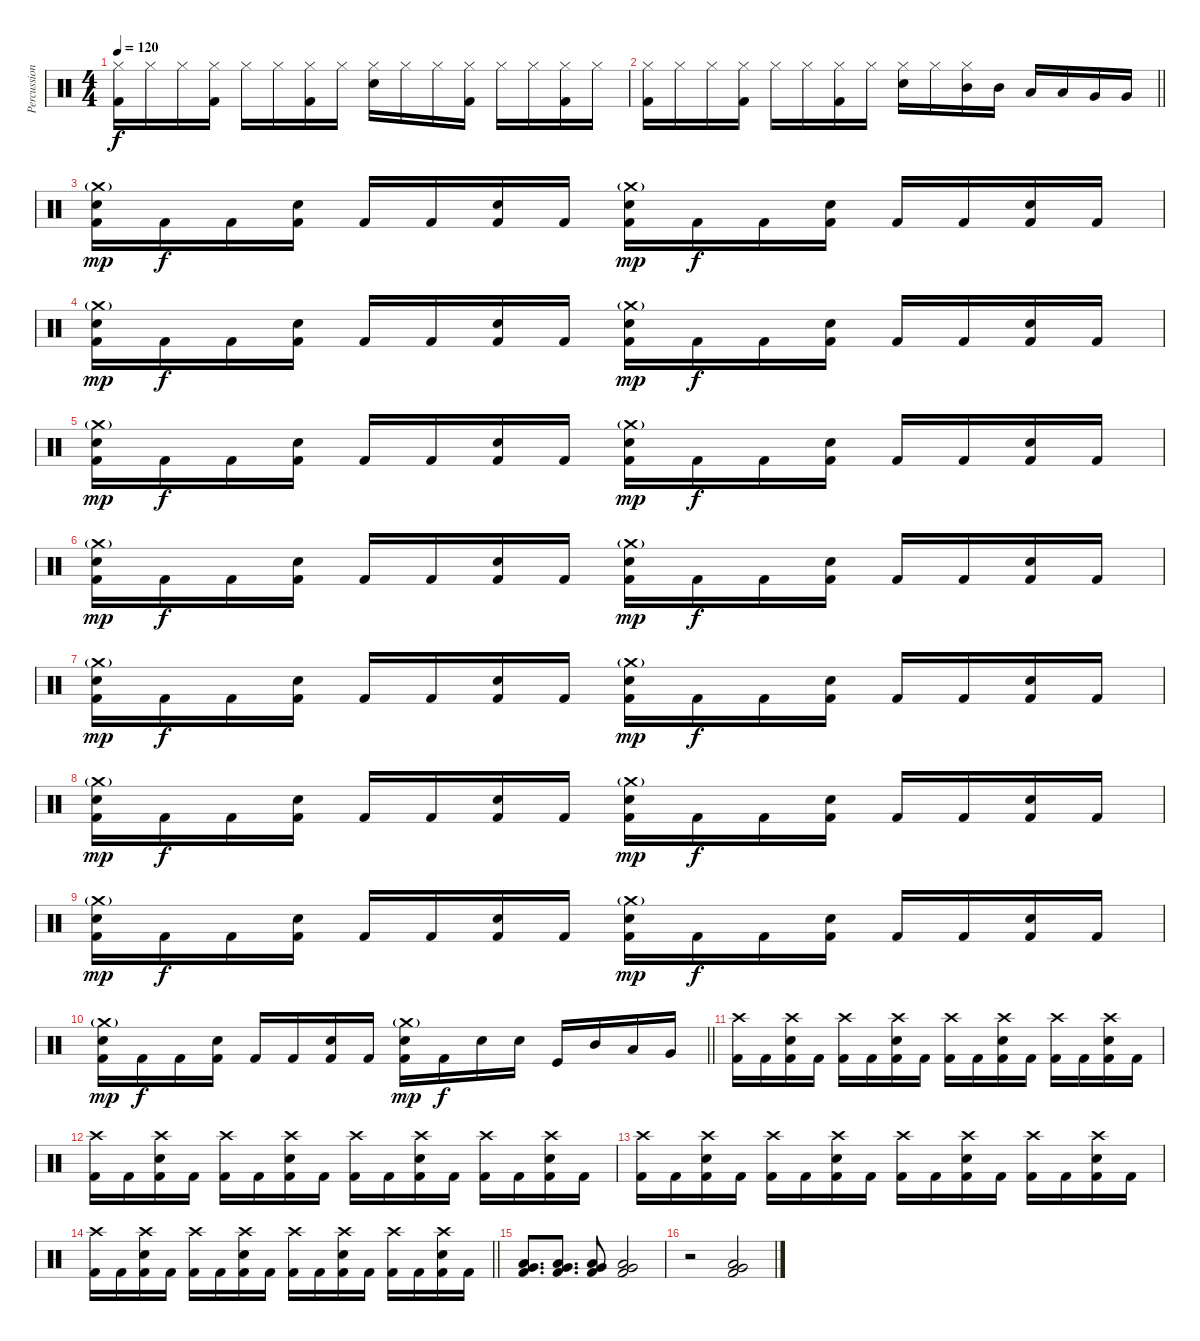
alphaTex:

\track ("Percussion" "Percussion") {instrument percussion}
\staff {score}
\articulation defaults
\ts (4 4)
\tempo 120
\clef neutral
\ks c
("Hi-Hat (closed)" "Kick (hit) 2").16{dy f} "Hi-Hat (closed)".16 "Hi-Hat (closed)".16 ("Hi-Hat (closed)" "Kick (hit) 2").16 "Hi-Hat (closed)".16 "Hi-Hat (closed)".16 ("Hi-Hat (closed)" "Kick (hit) 2").16 "Hi-Hat (closed)".16 ("Hi-Hat (closed)" "Snare (hit) 2").16 "Hi-Hat (closed)".16 "Hi-Hat (closed)".16 ("Hi-Hat (closed)" "Kick (hit) 2").16 "Hi-Hat (closed)".16 "Hi-Hat (closed)".16 ("Hi-Hat (closed)" "Kick (hit) 2").16 "Hi-Hat (closed)".16 |
\barLineRight lightlight
("Hi-Hat (closed)" "Kick (hit) 2").16 "Hi-Hat (closed)".16 "Hi-Hat (closed)".16 ("Hi-Hat (closed)" "Kick (hit) 2").16 "Hi-Hat (closed)".16 "Hi-Hat (closed)".16 ("Hi-Hat (closed)" "Kick (hit) 2").16 "Hi-Hat (closed)".16 ("Hi-Hat (closed)" "Snare (hit) 2").16 "Hi-Hat (closed)".16 ("Hi-Hat (closed)" "Mid Tom (hit)").16 "Mid Tom (hit)".16 "Low Tom (hit)".16 "Low Tom (hit)".16 "Very Low Tom (hit)".16 "Very Low Tom (hit)".16 |
\section ("" "")
("Crash medium (hit)"{g} "Snare (hit) 2" "Kick (hit) 2").16{dy mp} "Kick (hit) 2".16{dy f} "Kick (hit) 2".16 ("Snare (hit) 2" "Kick (hit) 2").16 "Kick (hit) 2".16 "Kick (hit) 2".16 ("Snare (hit) 2" "Kick (hit) 2").16 "Kick (hit) 2".16 ("Crash medium (hit)"{g} "Snare (hit) 2" "Kick (hit) 2").16{dy mp} "Kick (hit) 2".16{dy f} "Kick (hit) 2".16 ("Snare (hit) 2" "Kick (hit) 2").16 "Kick (hit) 2".16 "Kick (hit) 2".16 ("Snare (hit) 2" "Kick (hit) 2").16 "Kick (hit) 2".16 |
("Crash medium (hit)"{g} "Snare (hit) 2" "Kick (hit) 2").16{dy mp} "Kick (hit) 2".16{dy f} "Kick (hit) 2".16 ("Snare (hit) 2" "Kick (hit) 2").16 "Kick (hit) 2".16 "Kick (hit) 2".16 ("Snare (hit) 2" "Kick (hit) 2").16 "Kick (hit) 2".16 ("Crash medium (hit)"{g} "Snare (hit) 2" "Kick (hit) 2").16{dy mp} "Kick (hit) 2".16{dy f} "Kick (hit) 2".16 ("Snare (hit) 2" "Kick (hit) 2").16 "Kick (hit) 2".16 "Kick (hit) 2".16 ("Snare (hit) 2" "Kick (hit) 2").16 "Kick (hit) 2".16 |
("Crash medium (hit)"{g} "Snare (hit) 2" "Kick (hit) 2").16{dy mp} "Kick (hit) 2".16{dy f} "Kick (hit) 2".16 ("Snare (hit) 2" "Kick (hit) 2").16 "Kick (hit) 2".16 "Kick (hit) 2".16 ("Snare (hit) 2" "Kick (hit) 2").16 "Kick (hit) 2".16 ("Crash medium (hit)"{g} "Snare (hit) 2" "Kick (hit) 2").16{dy mp} "Kick (hit) 2".16{dy f} "Kick (hit) 2".16 ("Snare (hit) 2" "Kick (hit) 2").16 "Kick (hit) 2".16 "Kick (hit) 2".16 ("Snare (hit) 2" "Kick (hit) 2").16 "Kick (hit) 2".16 |
("Crash medium (hit)"{g} "Snare (hit) 2" "Kick (hit) 2").16{dy mp} "Kick (hit) 2".16{dy f} "Kick (hit) 2".16 ("Snare (hit) 2" "Kick (hit) 2").16 "Kick (hit) 2".16 "Kick (hit) 2".16 ("Snare (hit) 2" "Kick (hit) 2").16 "Kick (hit) 2".16 ("Crash medium (hit)"{g} "Snare (hit) 2" "Kick (hit) 2").16{dy mp} "Kick (hit) 2".16{dy f} "Kick (hit) 2".16 ("Snare (hit) 2" "Kick (hit) 2").16 "Kick (hit) 2".16 "Kick (hit) 2".16 ("Snare (hit) 2" "Kick (hit) 2").16 "Kick (hit) 2".16 |
("Crash medium (hit)"{g} "Snare (hit) 2" "Kick (hit) 2").16{dy mp} "Kick (hit) 2".16{dy f} "Kick (hit) 2".16 ("Snare (hit) 2" "Kick (hit) 2").16 "Kick (hit) 2".16 "Kick (hit) 2".16 ("Snare (hit) 2" "Kick (hit) 2").16 "Kick (hit) 2".16 ("Crash medium (hit)"{g} "Snare (hit) 2" "Kick (hit) 2").16{dy mp} "Kick (hit) 2".16{dy f} "Kick (hit) 2".16 ("Snare (hit) 2" "Kick (hit) 2").16 "Kick (hit) 2".16 "Kick (hit) 2".16 ("Snare (hit) 2" "Kick (hit) 2").16 "Kick (hit) 2".16 |
("Crash medium (hit)"{g} "Snare (hit) 2" "Kick (hit) 2").16{dy mp} "Kick (hit) 2".16{dy f} "Kick (hit) 2".16 ("Snare (hit) 2" "Kick (hit) 2").16 "Kick (hit) 2".16 "Kick (hit) 2".16 ("Snare (hit) 2" "Kick (hit) 2").16 "Kick (hit) 2".16 ("Crash medium (hit)"{g} "Snare (hit) 2" "Kick (hit) 2").16{dy mp} "Kick (hit) 2".16{dy f} "Kick (hit) 2".16 ("Snare (hit) 2" "Kick (hit) 2").16 "Kick (hit) 2".16 "Kick (hit) 2".16 ("Snare (hit) 2" "Kick (hit) 2").16 "Kick (hit) 2".16 |
("Crash medium (hit)"{g} "Snare (hit) 2" "Kick (hit) 2").16{dy mp} "Kick (hit) 2".16{dy f} "Kick (hit) 2".16 ("Snare (hit) 2" "Kick (hit) 2").16 "Kick (hit) 2".16 "Kick (hit) 2".16 ("Snare (hit) 2" "Kick (hit) 2").16 "Kick (hit) 2".16 ("Crash medium (hit)"{g} "Snare (hit) 2" "Kick (hit) 2").16{dy mp} "Kick (hit) 2".16{dy f} "Kick (hit) 2".16 ("Snare (hit) 2" "Kick (hit) 2").16 "Kick (hit) 2".16 "Kick (hit) 2".16 ("Snare (hit) 2" "Kick (hit) 2").16 "Kick (hit) 2".16 |
\barLineRight lightlight
("Crash medium (hit)"{g} "Snare (hit) 2" "Kick (hit) 2").16{dy mp} "Kick (hit) 2".16{dy f} "Kick (hit) 2".16 ("Snare (hit) 2" "Kick (hit) 2").16 "Kick (hit) 2".16 "Kick (hit) 2".16 ("Snare (hit) 2" "Kick (hit) 2").16 "Kick (hit) 2".16 ("Crash medium (hit)"{g} "Snare (hit) 2" "Kick (hit) 2").16{dy mp} "Kick (hit) 2".16{dy f} "Snare (hit) 2".16 "Snare (hit) 2".16 "Kick (hit)".16 "Mid Tom (hit)".16 "Low Tom (hit)".16 "Very Low Tom (hit)".16 |
\section ("" "")
("Crash high (hit)" "Kick (hit) 2").16 "Kick (hit) 2".16 ("Crash high (hit)" "Snare (hit) 2" "Kick (hit) 2").16 "Kick (hit) 2".16 ("Crash high (hit)" "Kick (hit) 2").16 "Kick (hit) 2".16 ("Crash high (hit)" "Snare (hit) 2" "Kick (hit) 2").16 "Kick (hit) 2".16 ("Crash high (hit)" "Kick (hit) 2").16 "Kick (hit) 2".16 ("Crash high (hit)" "Snare (hit) 2" "Kick (hit) 2").16 "Kick (hit) 2".16 ("Crash high (hit)" "Kick (hit) 2").16 "Kick (hit) 2".16 ("Crash high (hit)" "Snare (hit) 2" "Kick (hit) 2").16 "Kick (hit) 2".16 |
("Crash high (hit)" "Kick (hit) 2").16 "Kick (hit) 2".16 ("Crash high (hit)" "Snare (hit) 2" "Kick (hit) 2").16 "Kick (hit) 2".16 ("Crash high (hit)" "Kick (hit) 2").16 "Kick (hit) 2".16 ("Crash high (hit)" "Snare (hit) 2" "Kick (hit) 2").16 "Kick (hit) 2".16 ("Crash high (hit)" "Kick (hit) 2").16 "Kick (hit) 2".16 ("Crash high (hit)" "Snare (hit) 2" "Kick (hit) 2").16 "Kick (hit) 2".16 ("Crash high (hit)" "Kick (hit) 2").16 "Kick (hit) 2".16 ("Crash high (hit)" "Snare (hit) 2" "Kick (hit) 2").16 "Kick (hit) 2".16 |
("Crash high (hit)" "Kick (hit) 2").16 "Kick (hit) 2".16 ("Crash high (hit)" "Snare (hit) 2" "Kick (hit) 2").16 "Kick (hit) 2".16 ("Crash high (hit)" "Kick (hit) 2").16 "Kick (hit) 2".16 ("Crash high (hit)" "Snare (hit) 2" "Kick (hit) 2").16 "Kick (hit) 2".16 ("Crash high (hit)" "Kick (hit) 2").16 "Kick (hit) 2".16 ("Crash high (hit)" "Snare (hit) 2" "Kick (hit) 2").16 "Kick (hit) 2".16 ("Crash high (hit)" "Kick (hit) 2").16 "Kick (hit) 2".16 ("Crash high (hit)" "Snare (hit) 2" "Kick (hit) 2").16 "Kick (hit) 2".16 |
\barLineRight lightlight
("Crash high (hit)" "Kick (hit) 2").16 "Kick (hit) 2".16 ("Crash high (hit)" "Snare (hit) 2" "Kick (hit) 2").16 "Kick (hit) 2".16 ("Crash high (hit)" "Kick (hit) 2").16 "Kick (hit) 2".16 ("Crash high (hit)" "Snare (hit) 2" "Kick (hit) 2").16 "Kick (hit) 2".16 ("Crash high (hit)" "Kick (hit) 2").16 "Kick (hit) 2".16 ("Crash high (hit)" "Snare (hit) 2" "Kick (hit) 2").16 "Kick (hit) 2".16 ("Crash high (hit)" "Kick (hit) 2").16 "Kick (hit) 2".16 ("Crash high (hit)" "Snare (hit) 2" "Kick (hit) 2").16 "Kick (hit) 2".16 |
\section ("" "")
("Low Floor Tom (hit)" "Very Low Tom (hit)" "Kick (hit) 2").8{d} ("Low Floor Tom (hit)" "Very Low Tom (hit)" "Kick (hit) 2").8{d} ("Low Floor Tom (hit)" "Very Low Tom (hit)" "Kick (hit) 2").8 ("Low Floor Tom (hit)" "Very Low Tom (hit)" "Kick (hit) 2").2 |
r.2 ("Low Floor Tom (hit)" "Very Low Tom (hit)" "Kick (hit) 2").2
